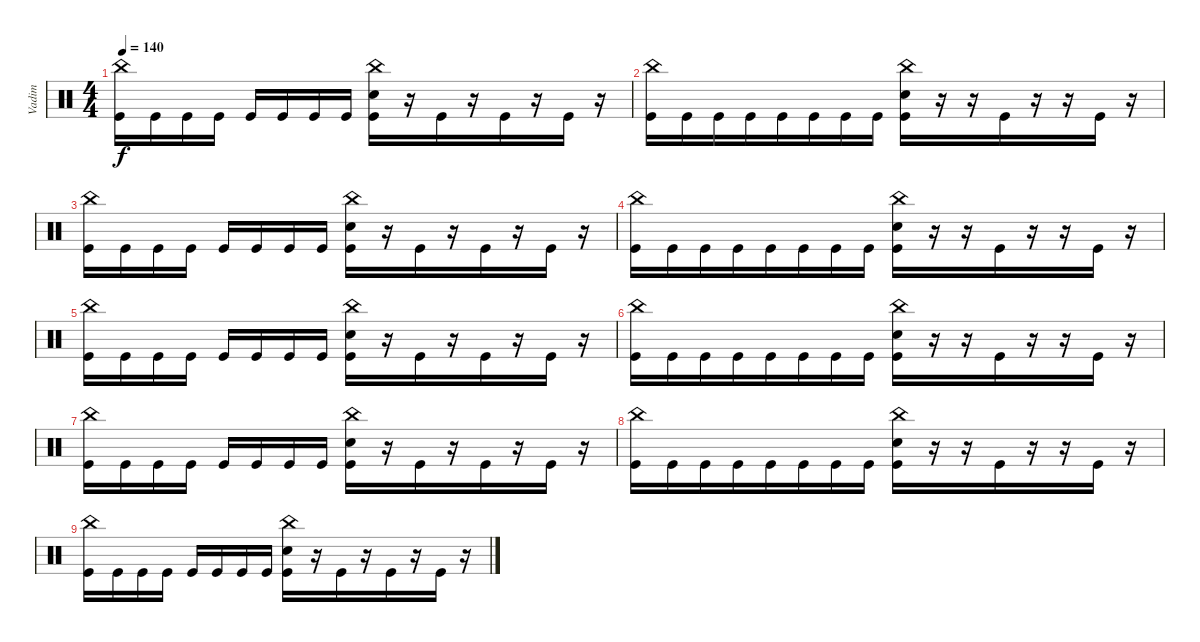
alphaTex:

\track ("Vadim" "Vadim") {instrument percussion}
\staff {score}
\articulation defaults
\ts (4 4)
\tempo 140
\clef neutral
\ks c
("China (hit)" "Kick (hit)").16{dy f} "Kick (hit)".16{beam merge} "Kick (hit)".16 "Kick (hit)".16 "Kick (hit)".16 "Kick (hit)".16 "Kick (hit)".16{beam merge} "Kick (hit)".16 ("China (hit)" "Electric Snare (hit)" "Kick (hit)").16{beam merge} r.16 "Kick (hit)".16{beam merge} r.16 "Kick (hit)".16{beam merge} r.16 "Kick (hit)".16{beam merge} r.16 |
("China (hit)" "Kick (hit)").16 "Kick (hit)".16 "Kick (hit)".16{beam merge} "Kick (hit)".16{beam merge} "Kick (hit)".16 "Kick (hit)".16 "Kick (hit)".16 "Kick (hit)".16 ("China (hit)" "Electric Snare (hit)" "Kick (hit)").16 r.16 r.16 "Kick (hit)".16{beam merge} r.16{beam merge} r.16 "Kick (hit)".16{beam merge} r.16 |
("China (hit)" "Kick (hit)").16 "Kick (hit)".16{beam merge} "Kick (hit)".16 "Kick (hit)".16 "Kick (hit)".16 "Kick (hit)".16 "Kick (hit)".16{beam merge} "Kick (hit)".16 ("China (hit)" "Electric Snare (hit)" "Kick (hit)").16{beam merge} r.16 "Kick (hit)".16{beam merge} r.16 "Kick (hit)".16{beam merge} r.16 "Kick (hit)".16{beam merge} r.16 |
("China (hit)" "Kick (hit)").16 "Kick (hit)".16 "Kick (hit)".16{beam merge} "Kick (hit)".16{beam merge} "Kick (hit)".16 "Kick (hit)".16 "Kick (hit)".16 "Kick (hit)".16 ("China (hit)" "Electric Snare (hit)" "Kick (hit)").16 r.16 r.16 "Kick (hit)".16{beam merge} r.16{beam merge} r.16 "Kick (hit)".16{beam merge} r.16 |
("China (hit)" "Kick (hit)").16 "Kick (hit)".16{beam merge} "Kick (hit)".16 "Kick (hit)".16 "Kick (hit)".16 "Kick (hit)".16 "Kick (hit)".16{beam merge} "Kick (hit)".16 ("China (hit)" "Electric Snare (hit)" "Kick (hit)").16{beam merge} r.16 "Kick (hit)".16{beam merge} r.16 "Kick (hit)".16{beam merge} r.16 "Kick (hit)".16{beam merge} r.16 |
("China (hit)" "Kick (hit)").16 "Kick (hit)".16 "Kick (hit)".16{beam merge} "Kick (hit)".16{beam merge} "Kick (hit)".16 "Kick (hit)".16 "Kick (hit)".16 "Kick (hit)".16 ("China (hit)" "Electric Snare (hit)" "Kick (hit)").16 r.16 r.16 "Kick (hit)".16{beam merge} r.16{beam merge} r.16 "Kick (hit)".16{beam merge} r.16 |
("China (hit)" "Kick (hit)").16 "Kick (hit)".16{beam merge} "Kick (hit)".16 "Kick (hit)".16 "Kick (hit)".16 "Kick (hit)".16 "Kick (hit)".16{beam merge} "Kick (hit)".16 ("China (hit)" "Electric Snare (hit)" "Kick (hit)").16{beam merge} r.16 "Kick (hit)".16{beam merge} r.16 "Kick (hit)".16{beam merge} r.16 "Kick (hit)".16{beam merge} r.16 |
("China (hit)" "Kick (hit)").16 "Kick (hit)".16 "Kick (hit)".16{beam merge} "Kick (hit)".16{beam merge} "Kick (hit)".16 "Kick (hit)".16 "Kick (hit)".16 "Kick (hit)".16 ("China (hit)" "Electric Snare (hit)" "Kick (hit)").16 r.16 r.16 "Kick (hit)".16{beam merge} r.16{beam merge} r.16 "Kick (hit)".16{beam merge} r.16 |
("China (hit)" "Kick (hit)").16 "Kick (hit)".16{beam merge} "Kick (hit)".16 "Kick (hit)".16 "Kick (hit)".16 "Kick (hit)".16 "Kick (hit)".16{beam merge} "Kick (hit)".16 ("China (hit)" "Electric Snare (hit)" "Kick (hit)").16{beam merge} r.16 "Kick (hit)".16{beam merge} r.16 "Kick (hit)".16{beam merge} r.16 "Kick (hit)".16{beam merge} r.16
